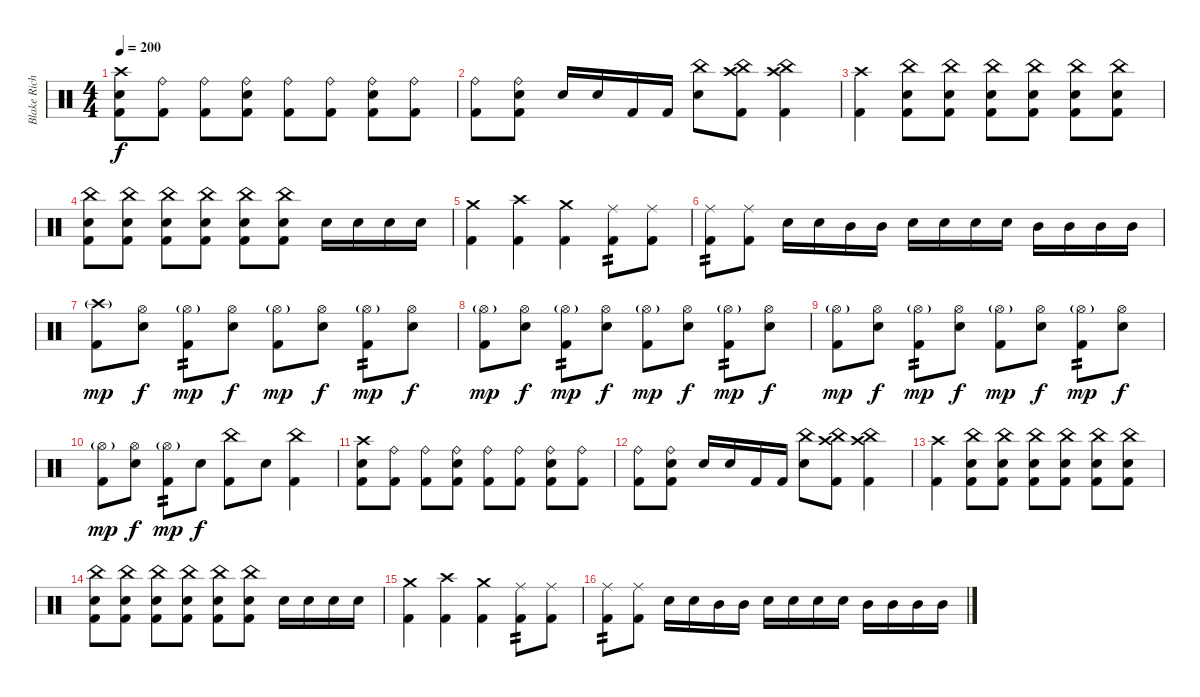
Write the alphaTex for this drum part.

\track ("Blake Richardson" "Blake Rich") {instrument percussion}
\staff {score}
\articulation defaults
\ts (4 4)
\tempo 200
\clef neutral
\ks c
("Crash high (hit)" "Electric Snare (hit)" "Kick (hit) 2").8{dy f} ("Ride (bell)" "Kick (hit) 2").8 ("Ride (bell)" "Kick (hit) 2").8 ("Ride (bell)" "Electric Snare (hit)" "Kick (hit) 2").8 ("Ride (bell)" "Kick (hit) 2").8 ("Ride (bell)" "Kick (hit) 2").8 ("Ride (bell)" "Electric Snare (hit)" "Kick (hit) 2").8 ("Ride (bell)" "Kick (hit) 2").8 |
("Ride (bell)" "Kick (hit) 2").8 ("Ride (bell)" "Electric Snare (hit)" "Kick (hit) 2").8 "Electric Snare (hit)".16 "Electric Snare (hit)".16 "Kick (hit) 2".16 "Kick (hit) 2".16 ("China (hit)" "Electric Snare (hit)").8 ("China (hit)" "Crash high (hit)" "Kick (hit) 2").8 ("China (hit)" "Crash high (hit)" "Kick (hit) 2").4 |
("Crash high (hit)" "Kick (hit) 2").4 ("China (hit)" "Electric Snare (hit)" "Kick (hit) 2").8 ("China (hit)" "Electric Snare (hit)" "Kick (hit) 2").8 ("China (hit)" "Electric Snare (hit)" "Kick (hit) 2").8 ("China (hit)" "Electric Snare (hit)" "Kick (hit) 2").8 ("China (hit)" "Electric Snare (hit)" "Kick (hit) 2").8 ("China (hit)" "Electric Snare (hit)" "Kick (hit) 2").8 |
("China (hit)" "Electric Snare (hit)" "Kick (hit) 2").8 ("China (hit)" "Electric Snare (hit)" "Kick (hit) 2").8 ("China (hit)" "Electric Snare (hit)" "Kick (hit) 2").8 ("China (hit)" "Electric Snare (hit)" "Kick (hit) 2").8 ("China (hit)" "Electric Snare (hit)" "Kick (hit) 2").8 ("China (hit)" "Electric Snare (hit)" "Kick (hit) 2").8 "Electric Snare (hit)".16 "Electric Snare (hit)".16 "Electric Snare (hit)".16 "Electric Snare (hit)".16 |
("Crash medium (hit)" "Kick (hit) 2").4 ("Crash high (hit)" "Kick (hit) 2").4 ("Crash medium (hit)" "Kick (hit) 2").4 ("Ride (middle)" "Kick (hit) 2").8{tp 2} ("Ride (middle)" "Kick (hit) 2").8 |
("Ride (middle)" "Kick (hit) 2").8{tp 2} ("Ride (middle)" "Kick (hit) 2").8 "Electric Snare (hit)".16 "Electric Snare (hit)".16 "Mid Tom (hit)".16 "Mid Tom (hit)".16 "Electric Snare (hit)".16 "Electric Snare (hit)".16 "Electric Snare (hit)".16 "Electric Snare (hit)".16 "Mid Tom (hit)".16 "Mid Tom (hit)".16 "Mid Tom (hit)".16 "Mid Tom (hit)".16 |
("Crash high (hit)"{g} "Kick (hit) 2").8{dy mp} ("Hi-Hat (open)" "Electric Snare (hit)").8{dy f} ("Hi-Hat (open)"{g} "Kick (hit) 2").8{tp 2 dy mp} ("Hi-Hat (open)" "Electric Snare (hit)").8{dy f} ("Hi-Hat (open)"{g} "Kick (hit) 2").8{dy mp} ("Hi-Hat (open)" "Electric Snare (hit)").8{dy f} ("Hi-Hat (open)"{g} "Kick (hit) 2").8{tp 2 dy mp} ("Hi-Hat (open)" "Electric Snare (hit)").8{dy f} |
("Hi-Hat (open)"{g} "Kick (hit) 2").8{dy mp} ("Hi-Hat (open)" "Electric Snare (hit)").8{dy f} ("Hi-Hat (open)"{g} "Kick (hit) 2").8{tp 2 dy mp} ("Hi-Hat (open)" "Electric Snare (hit)").8{dy f} ("Hi-Hat (open)"{g} "Kick (hit) 2").8{dy mp} ("Hi-Hat (open)" "Electric Snare (hit)").8{dy f} ("Hi-Hat (open)"{g} "Kick (hit) 2").8{tp 2 dy mp} ("Hi-Hat (open)" "Electric Snare (hit)").8{dy f} |
("Hi-Hat (open)"{g} "Kick (hit) 2").8{dy mp} ("Hi-Hat (open)" "Electric Snare (hit)").8{dy f} ("Hi-Hat (open)"{g} "Kick (hit) 2").8{tp 2 dy mp} ("Hi-Hat (open)" "Electric Snare (hit)").8{dy f} ("Hi-Hat (open)"{g} "Kick (hit) 2").8{dy mp} ("Hi-Hat (open)" "Electric Snare (hit)").8{dy f} ("Hi-Hat (open)"{g} "Kick (hit) 2").8{tp 2 dy mp} ("Hi-Hat (open)" "Electric Snare (hit)").8{dy f} |
("Hi-Hat (open)"{g} "Kick (hit) 2").8{dy mp} ("Hi-Hat (open)" "Electric Snare (hit)").8{dy f} ("Hi-Hat (open)"{g} "Kick (hit) 2").8{tp 2 dy mp} "Electric Snare (hit)".8{dy f} ("China (hit)" "Kick (hit) 2").8 "Electric Snare (hit)".8 ("China (hit)" "Kick (hit) 2").4 |
("Crash high (hit)" "Electric Snare (hit)" "Kick (hit) 2").8 ("Ride (bell)" "Kick (hit) 2").8 ("Ride (bell)" "Kick (hit) 2").8 ("Ride (bell)" "Electric Snare (hit)" "Kick (hit) 2").8 ("Ride (bell)" "Kick (hit) 2").8 ("Ride (bell)" "Kick (hit) 2").8 ("Ride (bell)" "Electric Snare (hit)" "Kick (hit) 2").8 ("Ride (bell)" "Kick (hit) 2").8 |
("Ride (bell)" "Kick (hit) 2").8 ("Ride (bell)" "Electric Snare (hit)" "Kick (hit) 2").8 "Electric Snare (hit)".16 "Electric Snare (hit)".16 "Kick (hit) 2".16 "Kick (hit) 2".16 ("China (hit)" "Electric Snare (hit)").8 ("China (hit)" "Crash high (hit)" "Kick (hit) 2").8 ("China (hit)" "Crash high (hit)" "Kick (hit) 2").4 |
("Crash high (hit)" "Kick (hit) 2").4 ("China (hit)" "Electric Snare (hit)" "Kick (hit) 2").8 ("China (hit)" "Electric Snare (hit)" "Kick (hit) 2").8 ("China (hit)" "Electric Snare (hit)" "Kick (hit) 2").8 ("China (hit)" "Electric Snare (hit)" "Kick (hit) 2").8 ("China (hit)" "Electric Snare (hit)" "Kick (hit) 2").8 ("China (hit)" "Electric Snare (hit)" "Kick (hit) 2").8 |
("China (hit)" "Electric Snare (hit)" "Kick (hit) 2").8 ("China (hit)" "Electric Snare (hit)" "Kick (hit) 2").8 ("China (hit)" "Electric Snare (hit)" "Kick (hit) 2").8 ("China (hit)" "Electric Snare (hit)" "Kick (hit) 2").8 ("China (hit)" "Electric Snare (hit)" "Kick (hit) 2").8 ("China (hit)" "Electric Snare (hit)" "Kick (hit) 2").8 "Electric Snare (hit)".16 "Electric Snare (hit)".16 "Electric Snare (hit)".16 "Electric Snare (hit)".16 |
("Crash medium (hit)" "Kick (hit) 2").4 ("Crash high (hit)" "Kick (hit) 2").4 ("Crash medium (hit)" "Kick (hit) 2").4 ("Ride (middle)" "Kick (hit) 2").8{tp 2} ("Ride (middle)" "Kick (hit) 2").8 |
("Ride (middle)" "Kick (hit) 2").8{tp 2} ("Ride (middle)" "Kick (hit) 2").8 "Electric Snare (hit)".16 "Electric Snare (hit)".16 "Mid Tom (hit)".16 "Mid Tom (hit)".16 "Electric Snare (hit)".16 "Electric Snare (hit)".16 "Electric Snare (hit)".16 "Electric Snare (hit)".16 "Mid Tom (hit)".16 "Mid Tom (hit)".16 "Mid Tom (hit)".16 "Mid Tom (hit)".16
